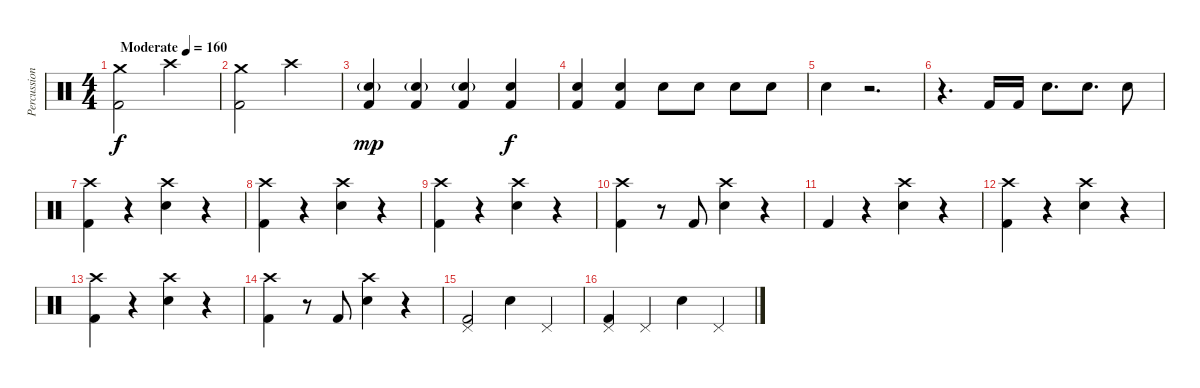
\track ("Percussion" "Percussion") {instrument percussion}
\staff {score}
\articulation defaults
\ts (4 4)
\tempo (160 "Moderate")
\clef neutral
\ks c
("Crash medium (hit)" "Kick (hit) 2").2{dy f} "Crash high (hit)".2 |
("Crash medium (hit)" "Kick (hit) 2").2 "Crash high (hit)".2 |
("Kick (hit) 2" "Snare (hit) 2"{g}).4{dy mp} ("Kick (hit) 2" "Snare (hit) 2"{g}).4 ("Kick (hit) 2" "Snare (hit) 2"{g}).4 ("Kick (hit) 2" "Snare (hit) 2").4{dy f} |
("Kick (hit) 2" "Snare (hit) 2").4 ("Kick (hit) 2" "Snare (hit) 2").4 "Snare (hit) 2".8 "Snare (hit) 2".8 "Snare (hit) 2".8 "Snare (hit) 2".8 |
"Snare (hit) 2".4 r.2{d} |
r.4{d} "Kick (hit) 2".16 "Kick (hit) 2".16 "Snare (hit) 2".8{d} "Snare (hit) 2".8{d} "Snare (hit) 2".8 |
("Crash high (hit)" "Kick (hit) 2").4 r.4 ("Crash high (hit)" "Snare (hit) 2").4 r.4 |
("Crash high (hit)" "Kick (hit) 2").4 r.4 ("Crash high (hit)" "Snare (hit) 2").4 r.4 |
("Crash high (hit)" "Kick (hit) 2").4 r.4 ("Crash high (hit)" "Snare (hit) 2").4 r.4 |
("Crash high (hit)" "Kick (hit) 2").4 r.8 "Kick (hit) 2".8 ("Crash high (hit)" "Snare (hit) 2").4 r.4 |
"Kick (hit) 2".4 r.4 ("Crash high (hit)" "Snare (hit) 2").4 r.4 |
("Crash high (hit)" "Kick (hit) 2").4 r.4 ("Crash high (hit)" "Snare (hit) 2").4 r.4 |
("Crash high (hit)" "Kick (hit) 2").4 r.4 ("Crash high (hit)" "Snare (hit) 2").4 r.4 |
("Crash high (hit)" "Kick (hit) 2").4 r.8 "Kick (hit) 2".8 ("Crash high (hit)" "Snare (hit) 2").4 r.4 |
("Pedal Hi-Hat (hit)" "Kick (hit) 2").2 "Snare (hit) 2".4 "Pedal Hi-Hat (hit)".4 |
("Pedal Hi-Hat (hit)" "Kick (hit) 2").4 "Pedal Hi-Hat (hit)".4 "Snare (hit) 2".4 "Pedal Hi-Hat (hit)".4
